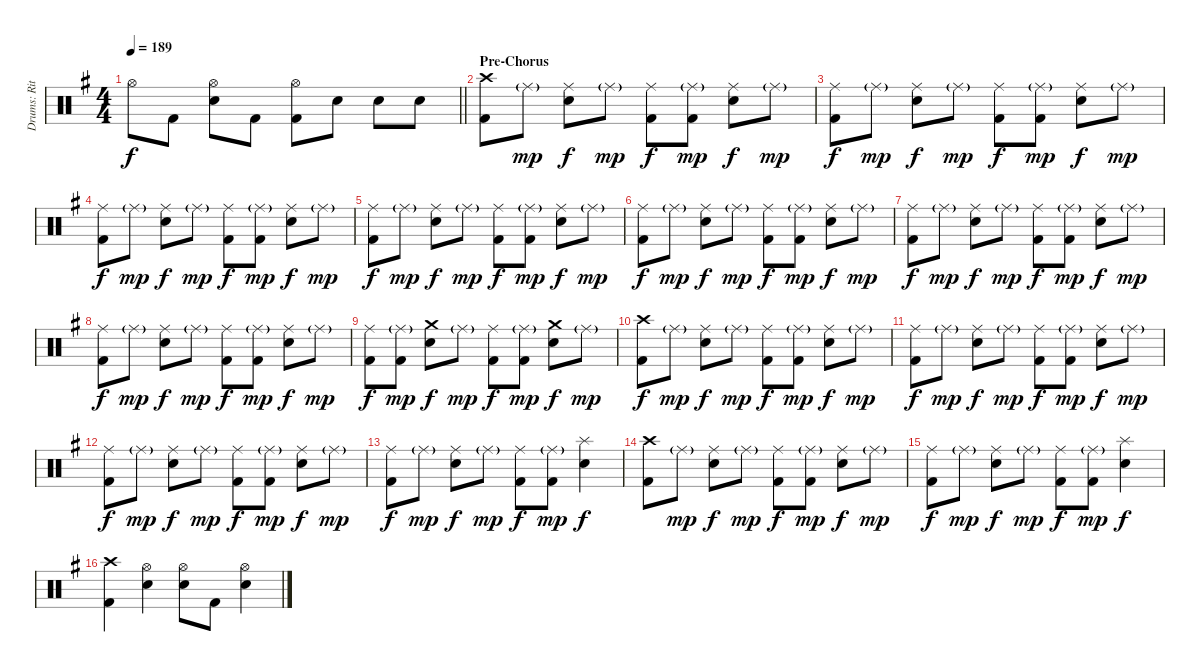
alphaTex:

\track ("Drums: Ritsu Tainaka" "Drums: Rit") {instrument percussion}
\staff {score}
\articulation defaults
\ts (4 4)
\tempo 189
\clef neutral
\barLineRight lightlight
\ks g "Hi-Hat (open)".8{dy f} "Kick (hit) 2".8
("Hi-Hat (open)" "Electric Snare (hit)").8 "Kick (hit) 2".8 ("Hi-Hat (open)" "Kick (hit) 2").8 "Electric Snare (hit)".8 "Electric Snare (hit)".8 "Electric Snare (hit)".8 |
\section ("" "Pre-Chorus")
("Crash high (hit)" "Kick (hit) 2").8 "Ride (middle)"{g}.8{dy mp} ("Ride (middle)" "Electric Snare (hit)").8{dy f} "Ride (middle)"{g}.8{dy mp} ("Ride (middle)" "Kick (hit) 2").8{dy f} ("Ride (middle)"{g} "Kick (hit) 2").8{dy mp} ("Ride (middle)" "Electric Snare (hit)").8{dy f} "Ride (middle)"{g}.8{dy mp} |
("Ride (middle)" "Kick (hit) 2").8{dy f} "Ride (middle)"{g}.8{dy mp} ("Ride (middle)" "Electric Snare (hit)").8{dy f} "Ride (middle)"{g}.8{dy mp} ("Ride (middle)" "Kick (hit) 2").8{dy f} ("Ride (middle)"{g} "Kick (hit) 2").8{dy mp} ("Ride (middle)" "Electric Snare (hit)").8{dy f} "Ride (middle)"{g}.8{dy mp} |
("Ride (middle)" "Kick (hit) 2").8{dy f} "Ride (middle)"{g}.8{dy mp} ("Ride (middle)" "Electric Snare (hit)").8{dy f} "Ride (middle)"{g}.8{dy mp} ("Ride (middle)" "Kick (hit) 2").8{dy f} ("Ride (middle)"{g} "Kick (hit) 2").8{dy mp} ("Ride (middle)" "Electric Snare (hit)").8{dy f} "Ride (middle)"{g}.8{dy mp} |
("Ride (middle)" "Kick (hit) 2").8{dy f} "Ride (middle)"{g}.8{dy mp} ("Ride (middle)" "Electric Snare (hit)").8{dy f} "Ride (middle)"{g}.8{dy mp} ("Ride (middle)" "Kick (hit) 2").8{dy f} ("Ride (middle)"{g} "Kick (hit) 2").8{dy mp} ("Ride (middle)" "Electric Snare (hit)").8{dy f} "Ride (middle)"{g}.8{dy mp} |
("Ride (middle)" "Kick (hit) 2").8{dy f} "Ride (middle)"{g}.8{dy mp} ("Ride (middle)" "Electric Snare (hit)").8{dy f} "Ride (middle)"{g}.8{dy mp} ("Ride (middle)" "Kick (hit) 2").8{dy f} ("Ride (middle)"{g} "Kick (hit) 2").8{dy mp} ("Ride (middle)" "Electric Snare (hit)").8{dy f} "Ride (middle)"{g}.8{dy mp} |
("Ride (middle)" "Kick (hit) 2").8{dy f} "Ride (middle)"{g}.8{dy mp} ("Ride (middle)" "Electric Snare (hit)").8{dy f} "Ride (middle)"{g}.8{dy mp} ("Ride (middle)" "Kick (hit) 2").8{dy f} ("Ride (middle)"{g} "Kick (hit) 2").8{dy mp} ("Ride (middle)" "Electric Snare (hit)").8{dy f} "Ride (middle)"{g}.8{dy mp} |
("Ride (middle)" "Kick (hit) 2").8{dy f} "Ride (middle)"{g}.8{dy mp} ("Ride (middle)" "Electric Snare (hit)").8{dy f} "Ride (middle)"{g}.8{dy mp} ("Ride (middle)" "Kick (hit) 2").8{dy f} ("Ride (middle)"{g} "Kick (hit) 2").8{dy mp} ("Ride (middle)" "Electric Snare (hit)").8{dy f} "Ride (middle)"{g}.8{dy mp} |
("Ride (middle)" "Kick (hit) 2").8{dy f} ("Ride (middle)"{g} "Kick (hit) 2").8{dy mp} ("Crash medium (hit)" "Electric Snare (hit)").8{dy f} "Ride (middle)"{g}.8{dy mp} ("Ride (middle)" "Kick (hit) 2").8{dy f} ("Ride (middle)"{g} "Kick (hit) 2").8{dy mp} ("Crash medium (hit)" "Electric Snare (hit)").8{dy f} "Ride (middle)"{g}.8{dy mp} |
("Crash high (hit)" "Kick (hit) 2").8{dy f} "Ride (middle)"{g}.8{dy mp} ("Ride (middle)" "Electric Snare (hit)").8{dy f} "Ride (middle)"{g}.8{dy mp} ("Ride (middle)" "Kick (hit) 2").8{dy f} ("Ride (middle)"{g} "Kick (hit) 2").8{dy mp} ("Ride (middle)" "Electric Snare (hit)").8{dy f} "Ride (middle)"{g}.8{dy mp} |
("Ride (middle)" "Kick (hit) 2").8{dy f} "Ride (middle)"{g}.8{dy mp} ("Ride (middle)" "Electric Snare (hit)").8{dy f} "Ride (middle)"{g}.8{dy mp} ("Ride (middle)" "Kick (hit) 2").8{dy f} ("Ride (middle)"{g} "Kick (hit) 2").8{dy mp} ("Ride (middle)" "Electric Snare (hit)").8{dy f} "Ride (middle)"{g}.8{dy mp} |
("Ride (middle)" "Kick (hit) 2").8{dy f} "Ride (middle)"{g}.8{dy mp} ("Ride (middle)" "Electric Snare (hit)").8{dy f} "Ride (middle)"{g}.8{dy mp} ("Ride (middle)" "Kick (hit) 2").8{dy f} ("Ride (middle)"{g} "Kick (hit) 2").8{dy mp} ("Ride (middle)" "Electric Snare (hit)").8{dy f} "Ride (middle)"{g}.8{dy mp} |
("Ride (middle)" "Kick (hit) 2").8{dy f} "Ride (middle)"{g}.8{dy mp} ("Ride (middle)" "Electric Snare (hit)").8{dy f} "Ride (middle)"{g}.8{dy mp} ("Ride (middle)" "Kick (hit) 2").8{dy f} ("Ride (middle)"{g} "Kick (hit) 2").8{dy mp} ("Splash (hit)" "Electric Snare (hit)").4{dy f} |
("Crash high (hit)" "Kick (hit) 2").8 "Ride (middle)"{g}.8{dy mp} ("Ride (middle)" "Electric Snare (hit)").8{dy f} "Ride (middle)"{g}.8{dy mp} ("Ride (middle)" "Kick (hit) 2").8{dy f} ("Ride (middle)"{g} "Kick (hit) 2").8{dy mp} ("Ride (middle)" "Electric Snare (hit)").8{dy f} "Ride (middle)"{g}.8{dy mp} |
("Ride (middle)" "Kick (hit) 2").8{dy f} "Ride (middle)"{g}.8{dy mp} ("Ride (middle)" "Electric Snare (hit)").8{dy f} "Ride (middle)"{g}.8{dy mp} ("Ride (middle)" "Kick (hit) 2").8{dy f} ("Ride (middle)"{g} "Kick (hit) 2").8{dy mp} ("Splash (hit)" "Electric Snare (hit)").4{dy f} |
("Crash high (hit)" "Kick (hit) 2").4 ("Hi-Hat (open)" "Electric Snare (hit)").4 ("Hi-Hat (open)" "Electric Snare (hit)").8 "Kick (hit) 2".8 ("Hi-Hat (open)" "Electric Snare (hit)").4
